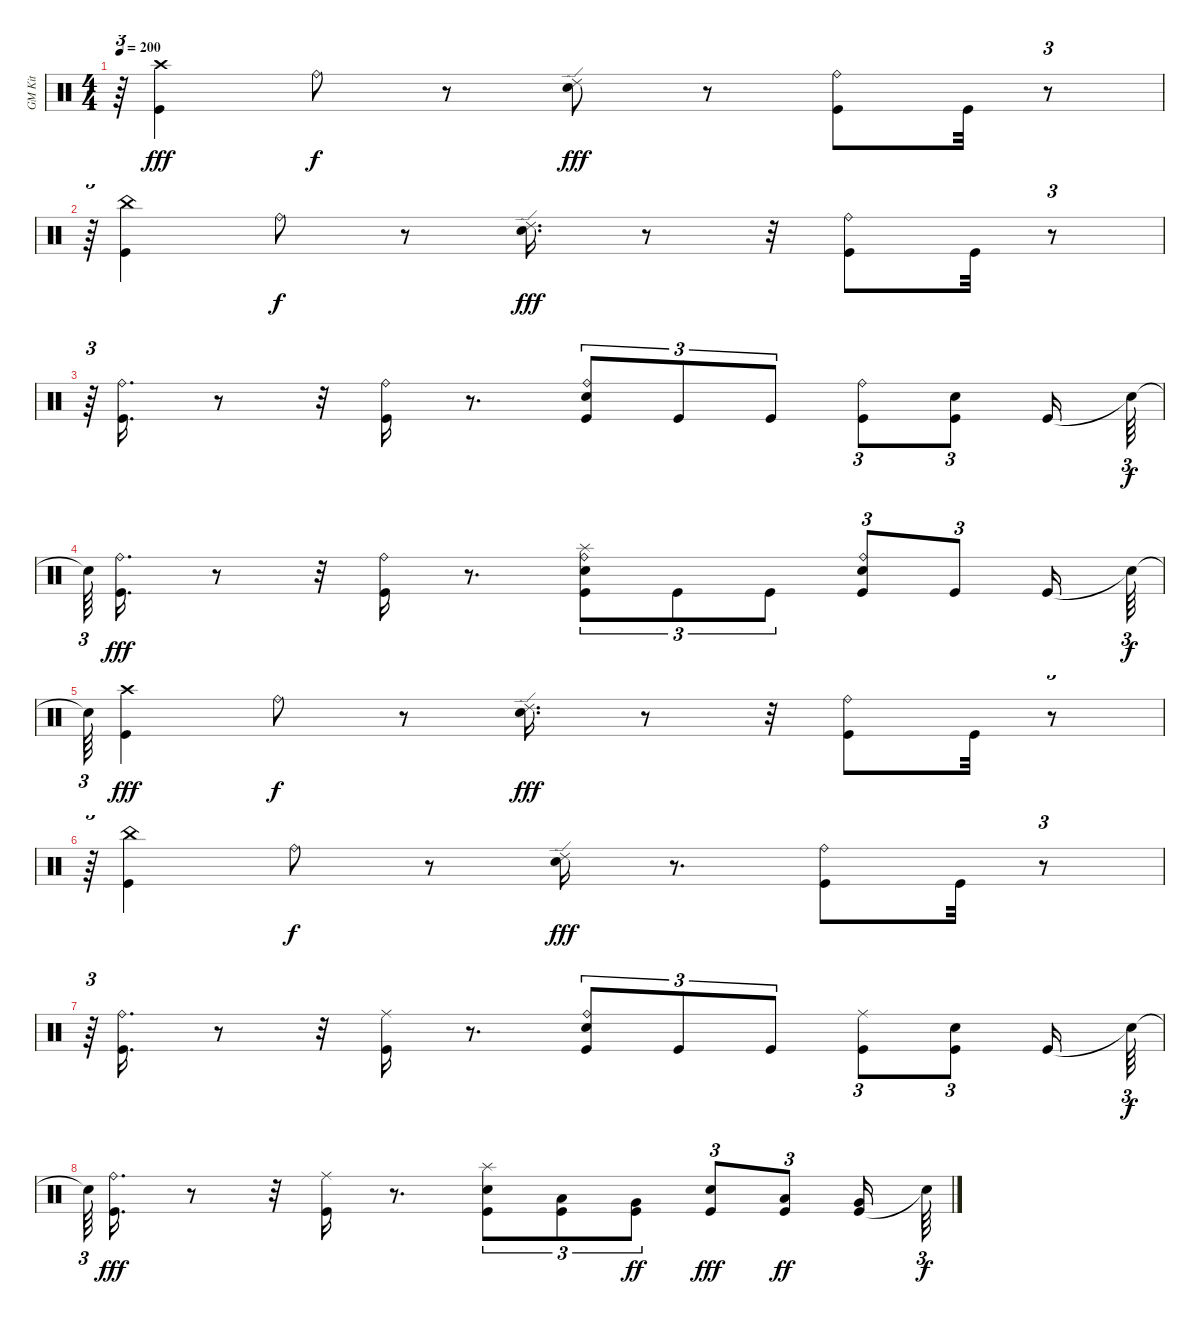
\track ("GM Kit" "GM Kit") {instrument percussion}
\staff {score}
\articulation defaults
\ts (4 4)
\tempo 200
\clef neutral
\ks c
r.64{tu (3 2) dy fff} ("Kick (hit)" "Crash high (hit)").4 "Ride (bell)".8{dy f} r.8 ("Snare (hit) 2" "Ride (edge) 2").8{dy fff} r.8 ("Kick (hit)" "Ride (bell)").8 "Kick (hit)".32 r.8{tu (3 2)} |
r.64{tu (3 2)} ("Kick (hit)" "China (hit)").4 "Ride (bell)".8{dy f} r.8 ("Snare (hit) 2" "Ride (edge) 2").16{d dy fff} r.8 r.32 ("Kick (hit)" "Ride (bell)").8 "Kick (hit)".32 r.8{tu (3 2)} |
r.64{tu (3 2)} ("Kick (hit)" "Ride (bell)").16{d} r.8 r.32 ("Kick (hit)" "Ride (bell)").16 r.8{d} ("Kick (hit)" "Snare (hit) 2" "Ride (bell)").8{tu (3 2)} "Kick (hit)".8{tu (3 2)} "Kick (hit)".8{tu (3 2)} ("Kick (hit)" "Ride (bell)").8{tu (3 2)} ("Kick (hit)" "Snare (hit) 2").8{tu (3 2)} "Kick (hit)".16 "Snare (hit)"{t}.64{tu (3 2) dy f} |
"Snare (hit)"{t}.64{tu (3 2)} ("Kick (hit)" "Ride (bell)").16{d dy fff} r.8 r.32 ("Kick (hit)" "Ride (bell)").16 r.8{d} ("Kick (hit)" "Snare (hit) 2" "Ride (bell)" "Splash (hit)").8{tu (3 2)} "Kick (hit)".8{tu (3 2)} "Kick (hit)".8{tu (3 2)} ("Kick (hit)" "Snare (hit) 2" "Ride (bell)").8{tu (3 2)} "Kick (hit)".8{tu (3 2)} "Kick (hit)".16 "Snare (hit)"{t}.64{tu (3 2) dy f} |
"Snare (hit)"{t}.64{tu (3 2)} ("Kick (hit)" "Crash high (hit)").4{dy fff} "Ride (bell)".8{dy f} r.8 ("Snare (hit) 2" "Ride (edge) 2").16{d dy fff} r.8 r.32 ("Kick (hit)" "Ride (bell)").8 "Kick (hit)".32 r.8{tu (3 2)} |
r.64{tu (3 2)} ("Kick (hit)" "China (hit)").4 "Ride (bell)".8{dy f} r.8 ("Snare (hit) 2" "Ride (edge) 2").16{dy fff} r.8{d} ("Kick (hit)" "Ride (bell)").8 "Kick (hit)".32 r.8{tu (3 2)} |
r.64{tu (3 2)} ("Kick (hit)" "Ride (bell)").16{d} r.8 r.32 ("Kick (hit)" "Ride (middle)").16 r.8{d} ("Kick (hit)" "Snare (hit) 2" "Ride (bell)").8{tu (3 2)} "Kick (hit)".8{tu (3 2)} "Kick (hit)".8{tu (3 2)} ("Kick (hit)" "Ride (middle)").8{tu (3 2)} ("Kick (hit)" "Snare (hit) 2").8{tu (3 2)} "Kick (hit)".16 "Snare (hit)"{t}.64{tu (3 2) dy f} |
"Snare (hit)"{t}.64{tu (3 2)} ("Kick (hit)" "Ride (bell)").16{d dy fff} r.8 r.32 ("Kick (hit)" "Ride (middle)").16 r.8{d} ("Kick (hit)" "Snare (hit) 2" "Splash (hit)").8{tu (3 2)} ("Kick (hit)" "Low Tom (hit)").8{tu (3 2)} ("Kick (hit)" "Very Low Tom (hit)").8{tu (3 2) dy ff} ("Kick (hit)" "Snare (hit) 2").8{tu (3 2) dy fff} ("Kick (hit)" "Low Tom (hit)").8{tu (3 2) dy ff} ("Kick (hit)" "Very Low Tom (hit)").16 "Snare (hit)"{t}.64{tu (3 2) dy f}
